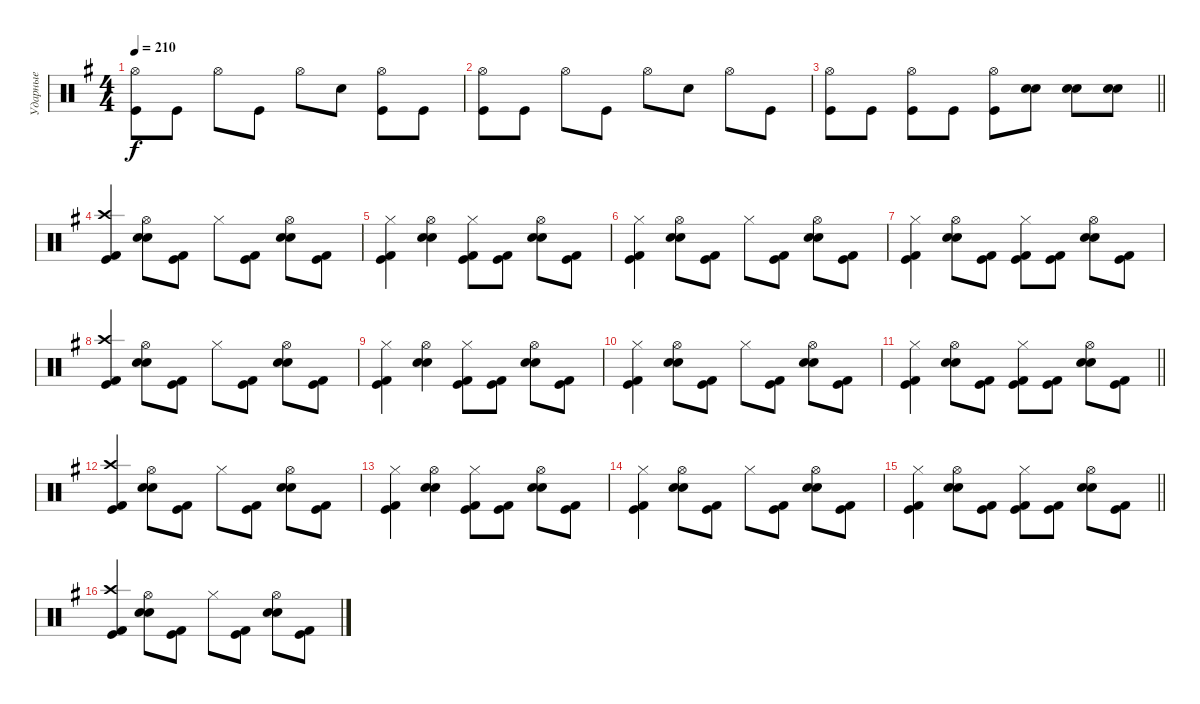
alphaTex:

\track ("Ударные" "Ударные") {instrument percussion}
\staff {score}
\articulation defaults
\ts (4 4)
\tempo 210
\clef neutral
\ks g
("Hi-Hat (open)" "Kick (hit)").8{dy f} "Kick (hit)".8 "Hi-Hat (open)".8 "Kick (hit)".8 "Hi-Hat (open)".8 "Electric Snare (hit)".8 ("Hi-Hat (open)" "Kick (hit)").8 "Kick (hit)".8 |
("Hi-Hat (open)" "Kick (hit)").8 "Kick (hit)".8 "Hi-Hat (open)".8 "Kick (hit)".8 "Hi-Hat (open)".8 "Electric Snare (hit)".8 "Hi-Hat (open)".8 "Kick (hit)".8 |
\barLineRight lightlight
("Hi-Hat (open)" "Kick (hit)").8 "Kick (hit)".8 ("Hi-Hat (open)" "Kick (hit)").8 "Kick (hit)".8 ("Hi-Hat (open)" "Kick (hit)").8 ("Snare (hit) 2" "Electric Snare (hit)").8 ("Snare (hit) 2" "Electric Snare (hit)").8 ("Snare (hit) 2" "Electric Snare (hit)").8 |
("Crash high (hit)" "Kick (hit) 2" "Kick (hit)").4 ("Hi-Hat (open)" "Electric Snare (hit)" "Snare (hit) 2").8 ("Kick (hit) 2" "Kick (hit)").8 "Hi-Hat (closed)".8 ("Kick (hit) 2" "Kick (hit)").8 ("Hi-Hat (open)" "Electric Snare (hit)" "Snare (hit) 2").8 ("Kick (hit) 2" "Kick (hit)").8 |
("Hi-Hat (closed)" "Kick (hit) 2" "Kick (hit)").4 ("Hi-Hat (open)" "Electric Snare (hit)" "Snare (hit) 2").4 ("Hi-Hat (closed)" "Kick (hit) 2" "Kick (hit)").8 ("Kick (hit) 2" "Kick (hit)").8 ("Hi-Hat (open)" "Electric Snare (hit)" "Snare (hit) 2").8 ("Kick (hit) 2" "Kick (hit)").8 |
("Hi-Hat (closed)" "Kick (hit) 2" "Kick (hit)").4 ("Hi-Hat (open)" "Electric Snare (hit)" "Snare (hit) 2").8 ("Kick (hit) 2" "Kick (hit)").8 "Hi-Hat (closed)".8 ("Kick (hit) 2" "Kick (hit)").8 ("Hi-Hat (open)" "Electric Snare (hit)" "Snare (hit) 2").8 ("Kick (hit) 2" "Kick (hit)").8 |
("Hi-Hat (closed)" "Kick (hit) 2" "Kick (hit)").4 ("Hi-Hat (open)" "Electric Snare (hit)" "Snare (hit) 2").8 ("Kick (hit) 2" "Kick (hit)").8 ("Hi-Hat (closed)" "Kick (hit) 2" "Kick (hit)").8 ("Kick (hit) 2" "Kick (hit)").8 ("Hi-Hat (open)" "Electric Snare (hit)" "Snare (hit) 2").8 ("Kick (hit) 2" "Kick (hit)").8 |
("Crash high (hit)" "Kick (hit) 2" "Kick (hit)").4 ("Hi-Hat (open)" "Electric Snare (hit)" "Snare (hit) 2").8 ("Kick (hit) 2" "Kick (hit)").8 "Hi-Hat (closed)".8 ("Kick (hit) 2" "Kick (hit)").8 ("Hi-Hat (open)" "Electric Snare (hit)" "Snare (hit) 2").8 ("Kick (hit) 2" "Kick (hit)").8 |
("Hi-Hat (closed)" "Kick (hit) 2" "Kick (hit)").4 ("Hi-Hat (open)" "Electric Snare (hit)" "Snare (hit) 2").4 ("Hi-Hat (closed)" "Kick (hit) 2" "Kick (hit)").8 ("Kick (hit) 2" "Kick (hit)").8 ("Hi-Hat (open)" "Electric Snare (hit)" "Snare (hit) 2").8 ("Kick (hit) 2" "Kick (hit)").8 |
("Hi-Hat (closed)" "Kick (hit) 2" "Kick (hit)").4 ("Hi-Hat (open)" "Electric Snare (hit)" "Snare (hit) 2").8 ("Kick (hit) 2" "Kick (hit)").8 "Hi-Hat (closed)".8 ("Kick (hit) 2" "Kick (hit)").8 ("Hi-Hat (open)" "Electric Snare (hit)" "Snare (hit) 2").8 ("Kick (hit) 2" "Kick (hit)").8 |
\barLineRight lightlight
("Hi-Hat (closed)" "Kick (hit) 2" "Kick (hit)").4 ("Hi-Hat (open)" "Electric Snare (hit)" "Snare (hit) 2").8 ("Kick (hit) 2" "Kick (hit)").8 ("Hi-Hat (closed)" "Kick (hit) 2" "Kick (hit)").8 ("Kick (hit) 2" "Kick (hit)").8 ("Hi-Hat (open)" "Electric Snare (hit)" "Snare (hit) 2").8 ("Kick (hit) 2" "Kick (hit)").8 |
("Crash high (hit)" "Kick (hit) 2" "Kick (hit)").4 ("Hi-Hat (open)" "Electric Snare (hit)" "Snare (hit) 2").8 ("Kick (hit) 2" "Kick (hit)").8 "Hi-Hat (closed)".8 ("Kick (hit) 2" "Kick (hit)").8 ("Hi-Hat (open)" "Electric Snare (hit)" "Snare (hit) 2").8 ("Kick (hit) 2" "Kick (hit)").8 |
("Hi-Hat (closed)" "Kick (hit) 2" "Kick (hit)").4 ("Hi-Hat (open)" "Electric Snare (hit)" "Snare (hit) 2").4 ("Hi-Hat (closed)" "Kick (hit) 2" "Kick (hit)").8 ("Kick (hit) 2" "Kick (hit)").8 ("Hi-Hat (open)" "Electric Snare (hit)" "Snare (hit) 2").8 ("Kick (hit) 2" "Kick (hit)").8 |
("Hi-Hat (closed)" "Kick (hit) 2" "Kick (hit)").4 ("Hi-Hat (open)" "Electric Snare (hit)" "Snare (hit) 2").8 ("Kick (hit) 2" "Kick (hit)").8 "Hi-Hat (closed)".8 ("Kick (hit) 2" "Kick (hit)").8 ("Hi-Hat (open)" "Electric Snare (hit)" "Snare (hit) 2").8 ("Kick (hit) 2" "Kick (hit)").8 |
\barLineRight lightlight
("Hi-Hat (closed)" "Kick (hit) 2" "Kick (hit)").4 ("Hi-Hat (open)" "Electric Snare (hit)" "Snare (hit) 2").8 ("Kick (hit) 2" "Kick (hit)").8 ("Hi-Hat (closed)" "Kick (hit) 2" "Kick (hit)").8 ("Kick (hit) 2" "Kick (hit)").8 ("Hi-Hat (open)" "Electric Snare (hit)" "Snare (hit) 2").8 ("Kick (hit) 2" "Kick (hit)").8 |
("Crash high (hit)" "Kick (hit) 2" "Kick (hit)").4 ("Hi-Hat (open)" "Electric Snare (hit)" "Snare (hit) 2").8 ("Kick (hit) 2" "Kick (hit)").8 "Hi-Hat (closed)".8 ("Kick (hit) 2" "Kick (hit)").8 ("Hi-Hat (open)" "Electric Snare (hit)" "Snare (hit) 2").8 ("Kick (hit) 2" "Kick (hit)").8
